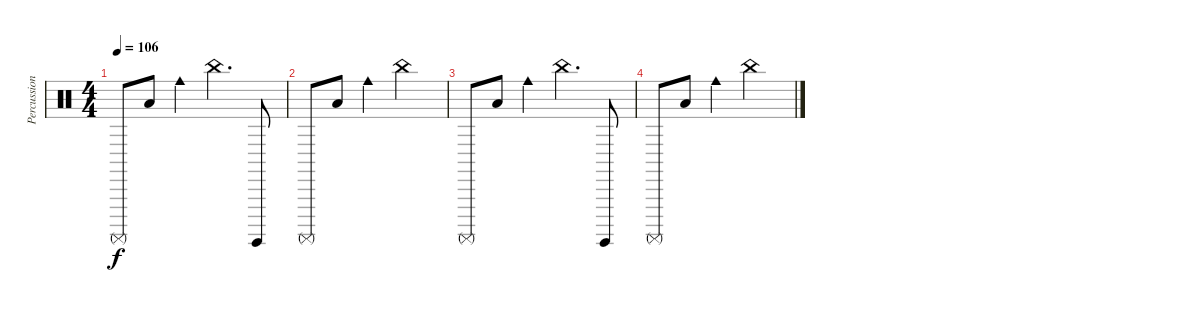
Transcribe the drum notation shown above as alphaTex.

\track ("Percussion" "Percussion") {instrument percussion}
\staff {score}
\articulation defaults
\ts (4 4)
\tempo 106
\clef neutral
\ks c "Surdo (mute)".8{dy f} "Low Floor Tom (hit)".8 "Cowbell medium (hit)".4 "China (hit)".4{d} "Surdo (hit)".8
|
"Surdo (mute)".8 "Low Floor Tom (hit)".8 "Cowbell medium (hit)".4 "China (hit)".2 |
"Surdo (mute)".8 "Low Floor Tom (hit)".8 "Cowbell medium (hit)".4 "China (hit)".4{d} "Surdo (hit)".8 |
"Surdo (mute)".8 "Low Floor Tom (hit)".8 "Cowbell medium (hit)".4 "China (hit)".2
